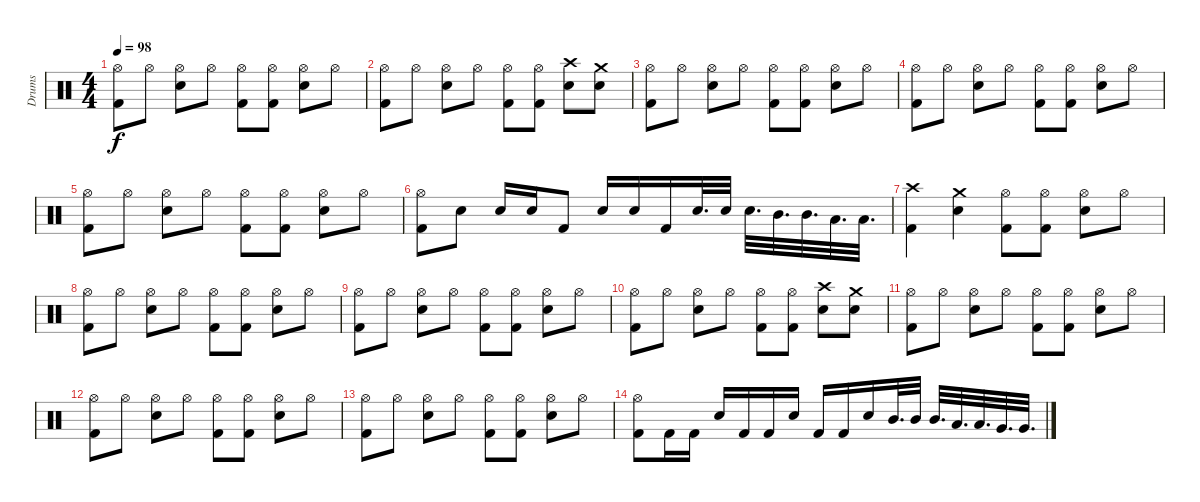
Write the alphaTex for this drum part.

\track ("Drums" "Drums") {instrument percussion}
\staff {score}
\articulation defaults
\ts (4 4)
\tempo 98
\clef neutral
\ks c
("Hi-Hat (open)" "Kick (hit) 2").8{dy f} "Hi-Hat (open)".8 ("Hi-Hat (open)" "Snare (hit) 2").8 "Hi-Hat (open)".8 ("Hi-Hat (open)" "Kick (hit) 2").8 ("Hi-Hat (open)" "Kick (hit) 2").8 ("Hi-Hat (open)" "Snare (hit) 2").8 "Hi-Hat (open)".8 |
("Hi-Hat (open)" "Kick (hit) 2").8 "Hi-Hat (open)".8 ("Hi-Hat (open)" "Snare (hit) 2").8 "Hi-Hat (open)".8 ("Hi-Hat (open)" "Kick (hit) 2").8 ("Hi-Hat (open)" "Kick (hit) 2").8 ("Crash high (hit)" "Snare (hit) 2").8 ("Crash medium (hit)" "Snare (hit) 2").8 |
("Hi-Hat (open)" "Kick (hit) 2").8 "Hi-Hat (open)".8 ("Hi-Hat (open)" "Snare (hit) 2").8 "Hi-Hat (open)".8 ("Hi-Hat (open)" "Kick (hit) 2").8 ("Hi-Hat (open)" "Kick (hit) 2").8 ("Hi-Hat (open)" "Snare (hit) 2").8 "Hi-Hat (open)".8 |
("Hi-Hat (open)" "Kick (hit) 2").8 "Hi-Hat (open)".8 ("Hi-Hat (open)" "Snare (hit) 2").8 "Hi-Hat (open)".8 ("Hi-Hat (open)" "Kick (hit) 2").8 ("Hi-Hat (open)" "Kick (hit) 2").8 ("Hi-Hat (open)" "Snare (hit) 2").8 "Hi-Hat (open)".8 |
("Hi-Hat (open)" "Kick (hit) 2").8 "Hi-Hat (open)".8 ("Hi-Hat (open)" "Snare (hit) 2").8 "Hi-Hat (open)".8 ("Hi-Hat (open)" "Kick (hit) 2").8 ("Hi-Hat (open)" "Kick (hit) 2").8 ("Hi-Hat (open)" "Snare (hit) 2").8 "Hi-Hat (open)".8 |
("Hi-Hat (open)" "Kick (hit) 2").8 "Snare (hit) 2".8 "Snare (hit) 2".16 "Snare (hit) 2".16 "Kick (hit) 2".8 "Snare (hit) 2".16 "Snare (hit) 2".16 "Kick (hit) 2".16 "Snare (hit) 2".32{d} "Snare (hit) 2".32 "Snare (hit) 2".32{d} "Mid Tom (hit)".32{d} "Mid Tom (hit)".32{d} "Low Tom (hit)".32{d} "Low Tom (hit)".32{d} |
("Crash high (hit)" "Kick (hit) 2").4 ("Crash medium (hit)" "Snare (hit) 2").4 ("Hi-Hat (open)" "Kick (hit) 2").8 ("Hi-Hat (open)" "Kick (hit) 2").8 ("Hi-Hat (open)" "Snare (hit) 2").8 "Hi-Hat (open)".8 |
("Hi-Hat (open)" "Kick (hit) 2").8 "Hi-Hat (open)".8 ("Hi-Hat (open)" "Snare (hit) 2").8 "Hi-Hat (open)".8 ("Hi-Hat (open)" "Kick (hit) 2").8 ("Hi-Hat (open)" "Kick (hit) 2").8 ("Hi-Hat (open)" "Snare (hit) 2").8 "Hi-Hat (open)".8 |
("Hi-Hat (open)" "Kick (hit) 2").8 "Hi-Hat (open)".8 ("Hi-Hat (open)" "Snare (hit) 2").8 "Hi-Hat (open)".8 ("Hi-Hat (open)" "Kick (hit) 2").8 ("Hi-Hat (open)" "Kick (hit) 2").8 ("Hi-Hat (open)" "Snare (hit) 2").8 "Hi-Hat (open)".8 |
("Hi-Hat (open)" "Kick (hit) 2").8 "Hi-Hat (open)".8 ("Hi-Hat (open)" "Snare (hit) 2").8 "Hi-Hat (open)".8 ("Hi-Hat (open)" "Kick (hit) 2").8 ("Hi-Hat (open)" "Kick (hit) 2").8 ("Crash high (hit)" "Snare (hit) 2").8 ("Crash medium (hit)" "Snare (hit) 2").8 |
("Hi-Hat (open)" "Kick (hit) 2").8{volume 0} "Hi-Hat (open)".8 ("Hi-Hat (open)" "Snare (hit) 2").8 "Hi-Hat (open)".8 ("Hi-Hat (open)" "Kick (hit) 2").8 ("Hi-Hat (open)" "Kick (hit) 2").8 ("Hi-Hat (open)" "Snare (hit) 2").8 "Hi-Hat (open)".8 |
("Hi-Hat (open)" "Kick (hit) 2").8 "Hi-Hat (open)".8 ("Hi-Hat (open)" "Snare (hit) 2").8 "Hi-Hat (open)".8 ("Hi-Hat (open)" "Kick (hit) 2").8 ("Hi-Hat (open)" "Kick (hit) 2").8 ("Hi-Hat (open)" "Snare (hit) 2").8 "Hi-Hat (open)".8 |
("Hi-Hat (open)" "Kick (hit) 2").8 "Hi-Hat (open)".8 ("Hi-Hat (open)" "Snare (hit) 2").8 "Hi-Hat (open)".8 ("Hi-Hat (open)" "Kick (hit) 2").8 ("Hi-Hat (open)" "Kick (hit) 2").8 ("Hi-Hat (open)" "Snare (hit) 2").8 "Hi-Hat (open)".8 |
("Hi-Hat (open)" "Kick (hit) 2").8 "Kick (hit) 2".16 "Kick (hit) 2".16 "Snare (hit) 2".16 "Kick (hit) 2".16 "Kick (hit) 2".16 "Snare (hit) 2".16 "Kick (hit) 2".16 "Kick (hit) 2".16 "Snare (hit) 2".16 "Mid Tom (hit)".32{d} "Mid Tom (hit)".32 "Mid Tom (hit)".32{d} "Low Tom (hit)".32{d} "Low Tom (hit)".32{d} "Very Low Tom (hit)".32{d} "Very Low Tom (hit)".32{d}
